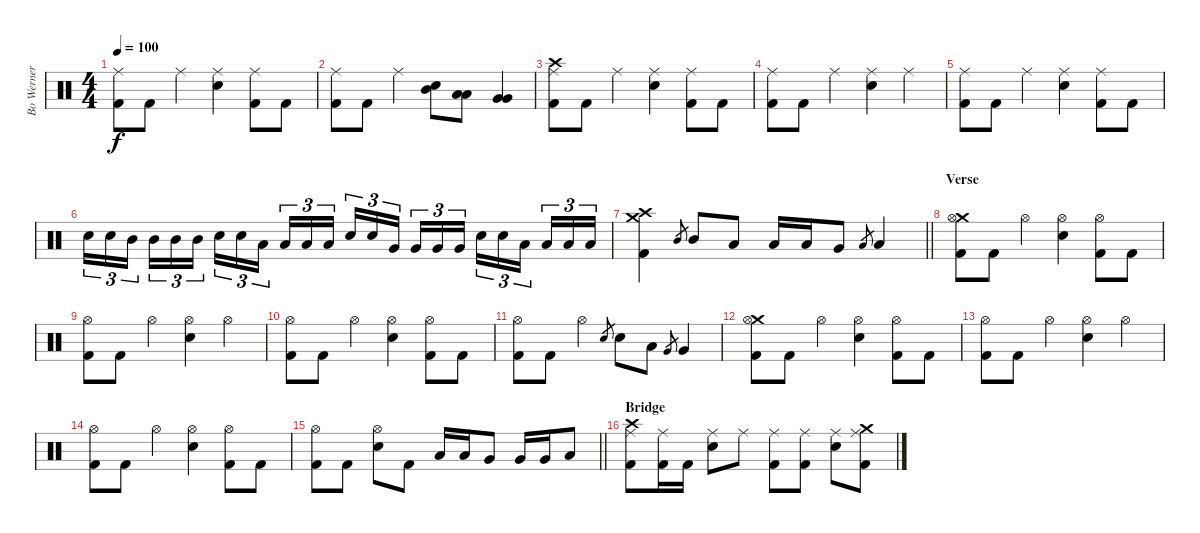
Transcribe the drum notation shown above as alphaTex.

\track ("Bo Werner" "Bo Werner") {instrument percussion}
\staff {score}
\articulation defaults
\ts (4 4)
\tempo 100
\clef neutral
\ks c
("Ride (middle)" "Kick (hit) 2").8{dy f} "Kick (hit) 2".8 "Ride (middle)".4 ("Ride (middle)" "Snare (hit) 2").4 ("Ride (middle)" "Kick (hit) 2").8 "Kick (hit) 2".8 |
("Ride (middle)" "Kick (hit) 2").8 "Kick (hit) 2".8 "Ride (middle)".4 ("Snare (hit) 2" "Mid Tom (hit)").8 ("Low Tom (hit)" "Low Tom (hit)").8 ("Very Low Tom (hit)" "Very Low Tom (hit)").4 |
("Crash high (hit)" "Ride (middle)" "Kick (hit) 2").8 "Kick (hit) 2".8 "Ride (middle)".4 ("Ride (middle)" "Snare (hit) 2").4 ("Ride (middle)" "Kick (hit) 2").8 "Kick (hit) 2".8 |
("Ride (middle)" "Kick (hit) 2").8 "Kick (hit) 2".8 "Ride (middle)".4 ("Ride (middle)" "Snare (hit) 2").4 "Ride (middle)".4 |
("Ride (middle)" "Kick (hit) 2").8 "Kick (hit) 2".8 "Ride (middle)".4 ("Ride (middle)" "Snare (hit) 2").4 ("Ride (middle)" "Kick (hit) 2").8 "Kick (hit) 2".8 |
"Snare (hit) 2".16{tu (3 2)} "Snare (hit) 2".16{tu (3 2)} "Mid Tom (hit)".16{tu (3 2) beam splitsecondary} "Mid Tom (hit)".16{tu (3 2)} "Mid Tom (hit)".16{tu (3 2)} "Mid Tom (hit)".16{tu (3 2)} "Snare (hit) 2".16{tu (3 2)} "Snare (hit) 2".16{tu (3 2)} "Low Tom (hit)".16{tu (3 2) beam splitsecondary} "Low Tom (hit)".16{tu (3 2)} "Low Tom (hit)".16{tu (3 2)} "Low Tom (hit)".16{tu (3 2)} "Snare (hit) 2".16{tu (3 2)} "Snare (hit) 2".16{tu (3 2)} "Very Low Tom (hit)".16{tu (3 2) beam splitsecondary} "Very Low Tom (hit)".16{tu (3 2)} "Very Low Tom (hit)".16{tu (3 2)} "Very Low Tom (hit)".16{tu (3 2)} "Snare (hit) 2".16{tu (3 2)} "Snare (hit) 2".16{tu (3 2)} "Low Floor Tom (hit)".16{tu (3 2) beam splitsecondary} "Low Floor Tom (hit)".16{tu (3 2)} "Low Floor Tom (hit)".16{tu (3 2)} "Low Floor Tom (hit)".16{tu (3 2)} |
\barLineRight lightlight
("Crash medium (hit)" "Crash high (hit)" "Kick (hit) 2").4 "Mid Tom (hit)".8{gr} "Mid Tom (hit)".8 "Low Tom (hit)".8 "Low Tom (hit)".16 "Low Tom (hit)".16 "Very Low Tom (hit)".8 "Low Floor Tom (hit)".8{gr} "Low Floor Tom (hit)".4 |
\section ("" "Verse")
("Crash medium (hit)" "Hi-Hat (open)" "Kick (hit) 2").8 "Kick (hit) 2".8 "Hi-Hat (open)".4 ("Hi-Hat (open)" "Snare (hit) 2").4 ("Hi-Hat (open)" "Kick (hit) 2").8 "Kick (hit) 2".8 |
("Hi-Hat (open)" "Kick (hit) 2").8 "Kick (hit) 2".8 "Hi-Hat (open)".4 ("Hi-Hat (open)" "Snare (hit) 2").4 "Hi-Hat (open)".4 |
("Hi-Hat (open)" "Kick (hit) 2").8 "Kick (hit) 2".8 "Hi-Hat (open)".4 ("Hi-Hat (open)" "Snare (hit) 2").4 ("Hi-Hat (open)" "Kick (hit) 2").8 "Kick (hit) 2".8 |
("Hi-Hat (open)" "Kick (hit) 2").8 "Kick (hit) 2".8 "Hi-Hat (open)".4 "Snare (hit) 2".8{gr} "Snare (hit) 2".8 "Low Tom (hit)".8 "Very Low Tom (hit)".8{gr} "Very Low Tom (hit)".4 |
("Crash medium (hit)" "Hi-Hat (open)" "Kick (hit) 2").8 "Kick (hit) 2".8 "Hi-Hat (open)".4 ("Hi-Hat (open)" "Snare (hit) 2").4 ("Hi-Hat (open)" "Kick (hit) 2").8 "Kick (hit) 2".8 |
("Hi-Hat (open)" "Kick (hit) 2").8 "Kick (hit) 2".8 "Hi-Hat (open)".4 ("Hi-Hat (open)" "Snare (hit) 2").4 "Hi-Hat (open)".4 |
("Hi-Hat (open)" "Kick (hit) 2").8 "Kick (hit) 2".8 "Hi-Hat (open)".4 ("Hi-Hat (open)" "Snare (hit) 2").4 ("Hi-Hat (open)" "Kick (hit) 2").8 "Kick (hit) 2".8 |
\barLineRight lightlight
("Hi-Hat (open)" "Kick (hit) 2").8 "Kick (hit) 2".8 ("Hi-Hat (open)" "Snare (hit) 2").8 "Kick (hit) 2".8 "Low Tom (hit)".16 "Low Tom (hit)".16 "Very Low Tom (hit)".8 "Very Low Tom (hit)".16 "Very Low Tom (hit)".16 "Low Floor Tom (hit)".8 |
\section ("" "Bridge")
("Crash high (hit)" "Ride (middle)" "Kick (hit) 2").8 ("Ride (middle)" "Kick (hit) 2").16 "Kick (hit) 2".16 ("Ride (middle)" "Snare (hit) 2").8 "Ride (middle)".8 ("Ride (middle)" "Kick (hit) 2").8 ("Ride (middle)" "Kick (hit) 2").8 ("Ride (middle)" "Snare (hit) 2").8 ("Crash medium (hit)" "Ride (middle)" "Kick (hit) 2").8
